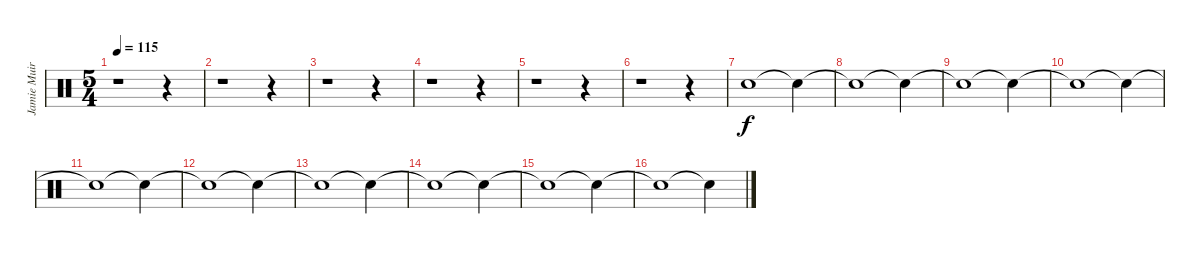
\track ("Jamie Muir percussion" "Jamie Muir") {instrument percussion}
\staff {score}
\articulation defaults
\ts (5 4)
\tempo 115
\clef neutral
\ks c
r.1{dy f} r.4 |
r.1 r.4 |
r.1 r.4 |
r.1 r.4 |
r.1 r.4 |
r.1 r.4 |
"Snare (hit) 2".1{volume 6} "Snare (hit)"{t}.4 |
"Snare (hit)"{t}.1 "Snare (hit)"{t}.4 |
"Snare (hit)"{t}.1 "Snare (hit)"{t}.4 |
"Snare (hit)"{t}.1 "Snare (hit)"{t}.4 |
"Snare (hit)"{t}.1 "Snare (hit)"{t}.4 |
"Snare (hit)"{t}.1 "Snare (hit)"{t}.4 |
"Snare (hit)"{t}.1 "Snare (hit)"{t}.4 |
"Snare (hit)"{t}.1 "Snare (hit)"{t}.4 |
"Snare (hit)"{t}.1 "Snare (hit)"{t}.4 |
"Snare (hit)"{t}.1 "Snare (hit)"{t}.4
